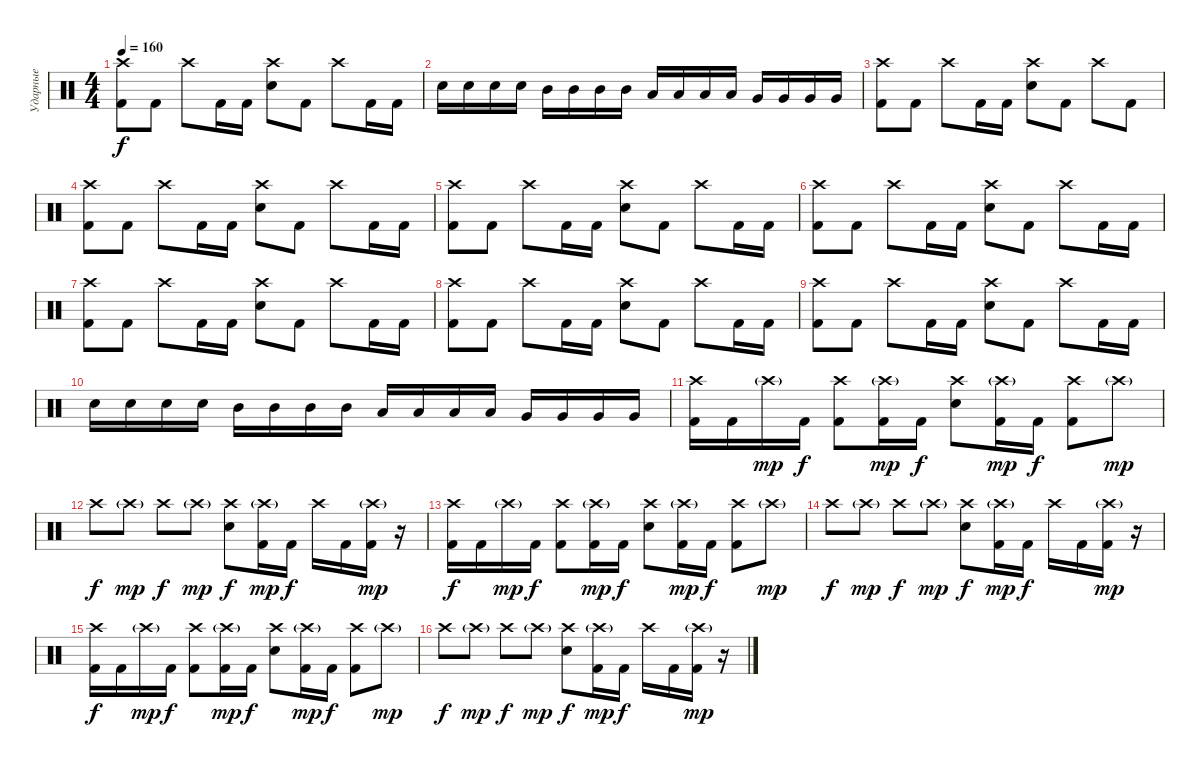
\track ("Ударные" "Ударные") {instrument percussion}
\staff {score}
\articulation defaults
\ts (4 4)
\tempo 160
\clef neutral
\ks c
("Crash high (hit)" "Kick (hit) 2").8{dy f} "Kick (hit) 2".8 "Crash high (hit)".8 "Kick (hit) 2".16 "Kick (hit) 2".16 ("Crash high (hit)" "Snare (hit) 2").8 "Kick (hit) 2".8 "Crash high (hit)".8 "Kick (hit) 2".16 "Kick (hit) 2".16 |
"Snare (hit) 2".16 "Snare (hit) 2".16 "Snare (hit) 2".16 "Snare (hit) 2".16 "Mid Tom (hit)".16 "Mid Tom (hit)".16 "Mid Tom (hit)".16 "Mid Tom (hit)".16 "Low Tom (hit)".16 "Low Tom (hit)".16 "Low Tom (hit)".16 "Low Tom (hit)".16 "Very Low Tom (hit)".16 "Very Low Tom (hit)".16 "Very Low Tom (hit)".16 "Very Low Tom (hit)".16 |
("Crash high (hit)" "Kick (hit) 2").8 "Kick (hit) 2".8 "Crash high (hit)".8 "Kick (hit) 2".16 "Kick (hit) 2".16 ("Crash high (hit)" "Snare (hit) 2").8 "Kick (hit) 2".8 "Crash high (hit)".8 "Kick (hit) 2".8 |
("Crash high (hit)" "Kick (hit) 2").8 "Kick (hit) 2".8 "Crash high (hit)".8 "Kick (hit) 2".16 "Kick (hit) 2".16 ("Crash high (hit)" "Snare (hit) 2").8 "Kick (hit) 2".8 "Crash high (hit)".8 "Kick (hit) 2".16 "Kick (hit) 2".16 |
("Crash high (hit)" "Kick (hit) 2").8 "Kick (hit) 2".8 "Crash high (hit)".8 "Kick (hit) 2".16 "Kick (hit) 2".16 ("Crash high (hit)" "Snare (hit) 2").8 "Kick (hit) 2".8 "Crash high (hit)".8 "Kick (hit) 2".16 "Kick (hit) 2".16 |
("Crash high (hit)" "Kick (hit) 2").8 "Kick (hit) 2".8 "Crash high (hit)".8 "Kick (hit) 2".16 "Kick (hit) 2".16 ("Crash high (hit)" "Snare (hit) 2").8 "Kick (hit) 2".8 "Crash high (hit)".8 "Kick (hit) 2".16 "Kick (hit) 2".16 |
("Crash high (hit)" "Kick (hit) 2").8 "Kick (hit) 2".8 "Crash high (hit)".8 "Kick (hit) 2".16 "Kick (hit) 2".16 ("Crash high (hit)" "Snare (hit) 2").8 "Kick (hit) 2".8 "Crash high (hit)".8 "Kick (hit) 2".16 "Kick (hit) 2".16 |
("Crash high (hit)" "Kick (hit) 2").8 "Kick (hit) 2".8 "Crash high (hit)".8 "Kick (hit) 2".16 "Kick (hit) 2".16 ("Crash high (hit)" "Snare (hit) 2").8 "Kick (hit) 2".8 "Crash high (hit)".8 "Kick (hit) 2".16 "Kick (hit) 2".16 |
("Crash high (hit)" "Kick (hit) 2").8 "Kick (hit) 2".8 "Crash high (hit)".8 "Kick (hit) 2".16 "Kick (hit) 2".16 ("Crash high (hit)" "Snare (hit) 2").8 "Kick (hit) 2".8 "Crash high (hit)".8 "Kick (hit) 2".16 "Kick (hit) 2".16 |
"Snare (hit) 2".16 "Snare (hit) 2".16 "Snare (hit) 2".16 "Snare (hit) 2".16 "Mid Tom (hit)".16 "Mid Tom (hit)".16 "Mid Tom (hit)".16 "Mid Tom (hit)".16 "Low Tom (hit)".16 "Low Tom (hit)".16 "Low Tom (hit)".16 "Low Tom (hit)".16 "Very Low Tom (hit)".16 "Very Low Tom (hit)".16 "Very Low Tom (hit)".16 "Very Low Tom (hit)".16 |
("Crash high (hit)" "Kick (hit) 2").16 "Kick (hit) 2".16 "Crash high (hit)"{g}.16{dy mp} "Kick (hit) 2".16{dy f} ("Crash high (hit)" "Kick (hit) 2").8 ("Crash high (hit)"{g} "Kick (hit) 2").16{dy mp} "Kick (hit) 2".16{dy f} ("Crash high (hit)" "Snare (hit) 2").8 ("Crash high (hit)"{g} "Kick (hit) 2").16{dy mp} "Kick (hit) 2".16{dy f} ("Crash high (hit)" "Kick (hit) 2").8 "Crash high (hit)"{g}.8{dy mp} |
"Crash high (hit)".8{dy f} "Crash high (hit)"{g}.8{dy mp} "Crash high (hit)".8{dy f} "Crash high (hit)"{g}.8{dy mp} ("Crash high (hit)" "Snare (hit) 2").8{dy f} ("Crash high (hit)"{g} "Kick (hit) 2").16{dy mp} "Kick (hit) 2".16{dy f} "Crash high (hit)".16 "Kick (hit) 2".16 ("Crash high (hit)"{g} "Kick (hit) 2").16{dy mp} r.16 |
("Crash high (hit)" "Kick (hit) 2").16{dy f} "Kick (hit) 2".16 "Crash high (hit)"{g}.16{dy mp} "Kick (hit) 2".16{dy f} ("Crash high (hit)" "Kick (hit) 2").8 ("Crash high (hit)"{g} "Kick (hit) 2").16{dy mp} "Kick (hit) 2".16{dy f} ("Crash high (hit)" "Snare (hit) 2").8 ("Crash high (hit)"{g} "Kick (hit) 2").16{dy mp} "Kick (hit) 2".16{dy f} ("Crash high (hit)" "Kick (hit) 2").8 "Crash high (hit)"{g}.8{dy mp} |
"Crash high (hit)".8{dy f} "Crash high (hit)"{g}.8{dy mp} "Crash high (hit)".8{dy f} "Crash high (hit)"{g}.8{dy mp} ("Crash high (hit)" "Snare (hit) 2").8{dy f} ("Crash high (hit)"{g} "Kick (hit) 2").16{dy mp} "Kick (hit) 2".16{dy f} "Crash high (hit)".16 "Kick (hit) 2".16 ("Crash high (hit)"{g} "Kick (hit) 2").16{dy mp} r.16 |
("Crash high (hit)" "Kick (hit) 2").16{dy f} "Kick (hit) 2".16 "Crash high (hit)"{g}.16{dy mp} "Kick (hit) 2".16{dy f} ("Crash high (hit)" "Kick (hit) 2").8 ("Crash high (hit)"{g} "Kick (hit) 2").16{dy mp} "Kick (hit) 2".16{dy f} ("Crash high (hit)" "Snare (hit) 2").8 ("Crash high (hit)"{g} "Kick (hit) 2").16{dy mp} "Kick (hit) 2".16{dy f} ("Crash high (hit)" "Kick (hit) 2").8 "Crash high (hit)"{g}.8{dy mp} |
"Crash high (hit)".8{dy f} "Crash high (hit)"{g}.8{dy mp} "Crash high (hit)".8{dy f} "Crash high (hit)"{g}.8{dy mp} ("Crash high (hit)" "Snare (hit) 2").8{dy f} ("Crash high (hit)"{g} "Kick (hit) 2").16{dy mp} "Kick (hit) 2".16{dy f} "Crash high (hit)".16 "Kick (hit) 2".16 ("Crash high (hit)"{g} "Kick (hit) 2").16{dy mp} r.16
